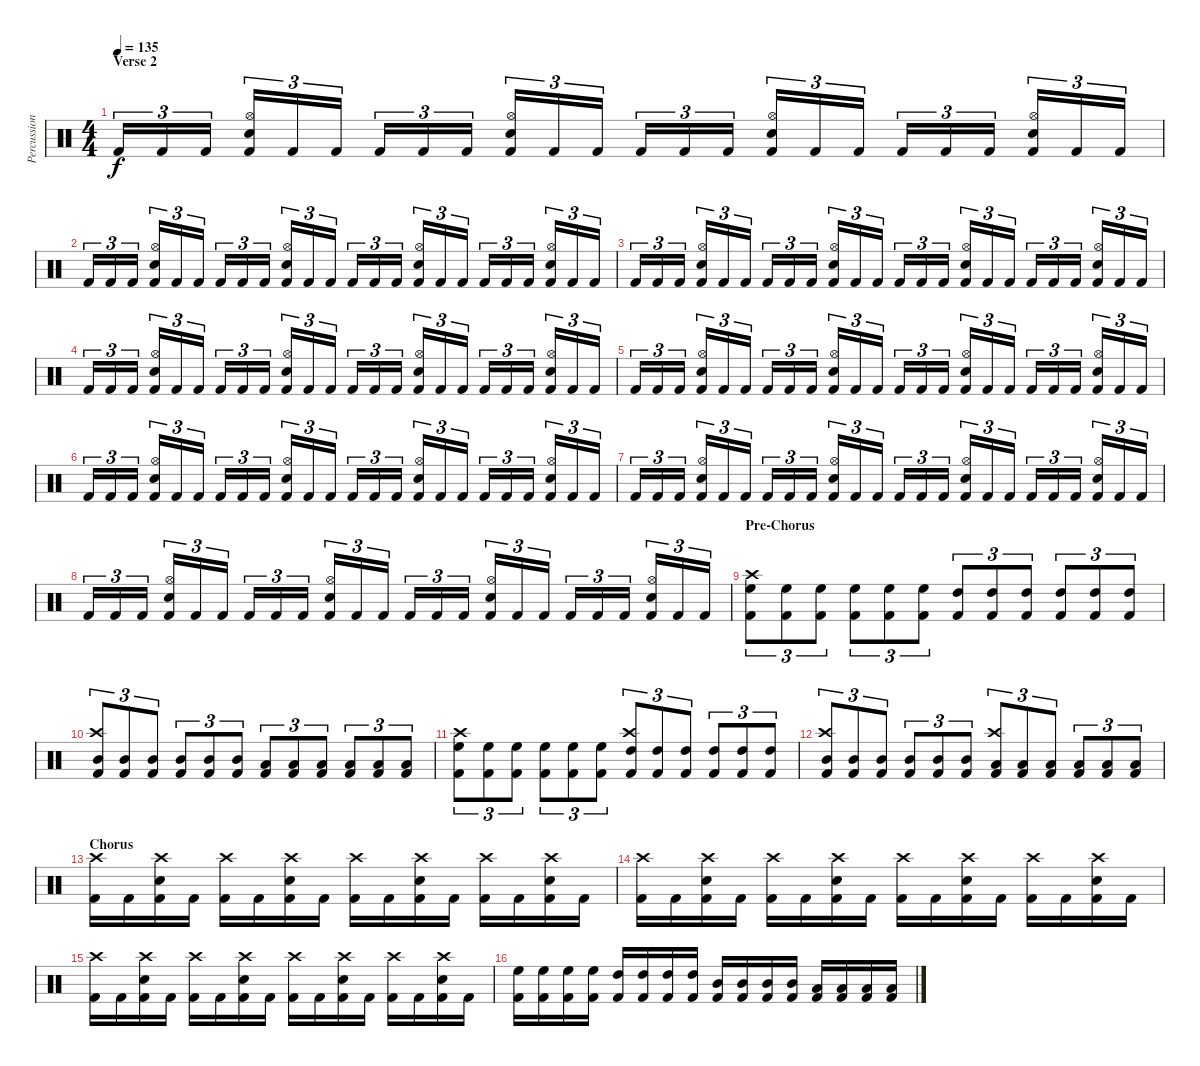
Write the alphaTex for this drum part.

\track ("Percussion" "Percussion") {instrument percussion}
\staff {score}
\articulation defaults
\ts (4 4)
\section ("" "Verse 2")
\tempo 135
\clef neutral
\ks c "Kick (hit) 2".16{tu (3 2) dy f} "Kick (hit) 2".16{tu (3 2)} "Kick (hit) 2".16{tu (3 2)}
("Hi-Hat (open)" "Snare (hit) 2" "Kick (hit) 2").16{tu (3 2)} "Kick (hit) 2".16{tu (3 2)} "Kick (hit) 2".16{tu (3 2)} "Kick (hit) 2".16{tu (3 2)} "Kick (hit) 2".16{tu (3 2)} "Kick (hit) 2".16{tu (3 2)} ("Hi-Hat (open)" "Snare (hit) 2" "Kick (hit) 2").16{tu (3 2)} "Kick (hit) 2".16{tu (3 2)} "Kick (hit) 2".16{tu (3 2)} "Kick (hit) 2".16{tu (3 2)} "Kick (hit) 2".16{tu (3 2)} "Kick (hit) 2".16{tu (3 2)} ("Hi-Hat (open)" "Snare (hit) 2" "Kick (hit) 2").16{tu (3 2)} "Kick (hit) 2".16{tu (3 2)} "Kick (hit) 2".16{tu (3 2)} "Kick (hit) 2".16{tu (3 2)} "Kick (hit) 2".16{tu (3 2)} "Kick (hit) 2".16{tu (3 2)} ("Hi-Hat (open)" "Snare (hit) 2" "Kick (hit) 2").16{tu (3 2)} "Kick (hit) 2".16{tu (3 2)} "Kick (hit) 2".16{tu (3 2)} |
"Kick (hit) 2".16{tu (3 2)} "Kick (hit) 2".16{tu (3 2)} "Kick (hit) 2".16{tu (3 2)} ("Hi-Hat (open)" "Snare (hit) 2" "Kick (hit) 2").16{tu (3 2)} "Kick (hit) 2".16{tu (3 2)} "Kick (hit) 2".16{tu (3 2)} "Kick (hit) 2".16{tu (3 2)} "Kick (hit) 2".16{tu (3 2)} "Kick (hit) 2".16{tu (3 2)} ("Hi-Hat (open)" "Snare (hit) 2" "Kick (hit) 2").16{tu (3 2)} "Kick (hit) 2".16{tu (3 2)} "Kick (hit) 2".16{tu (3 2)} "Kick (hit) 2".16{tu (3 2)} "Kick (hit) 2".16{tu (3 2)} "Kick (hit) 2".16{tu (3 2)} ("Hi-Hat (open)" "Snare (hit) 2" "Kick (hit) 2").16{tu (3 2)} "Kick (hit) 2".16{tu (3 2)} "Kick (hit) 2".16{tu (3 2)} "Kick (hit) 2".16{tu (3 2)} "Kick (hit) 2".16{tu (3 2)} "Kick (hit) 2".16{tu (3 2)} ("Hi-Hat (open)" "Snare (hit) 2" "Kick (hit) 2").16{tu (3 2)} "Kick (hit) 2".16{tu (3 2)} "Kick (hit) 2".16{tu (3 2)} |
"Kick (hit) 2".16{tu (3 2)} "Kick (hit) 2".16{tu (3 2)} "Kick (hit) 2".16{tu (3 2)} ("Hi-Hat (open)" "Snare (hit) 2" "Kick (hit) 2").16{tu (3 2)} "Kick (hit) 2".16{tu (3 2)} "Kick (hit) 2".16{tu (3 2)} "Kick (hit) 2".16{tu (3 2)} "Kick (hit) 2".16{tu (3 2)} "Kick (hit) 2".16{tu (3 2)} ("Hi-Hat (open)" "Snare (hit) 2" "Kick (hit) 2").16{tu (3 2)} "Kick (hit) 2".16{tu (3 2)} "Kick (hit) 2".16{tu (3 2)} "Kick (hit) 2".16{tu (3 2)} "Kick (hit) 2".16{tu (3 2)} "Kick (hit) 2".16{tu (3 2)} ("Hi-Hat (open)" "Snare (hit) 2" "Kick (hit) 2").16{tu (3 2)} "Kick (hit) 2".16{tu (3 2)} "Kick (hit) 2".16{tu (3 2)} "Kick (hit) 2".16{tu (3 2)} "Kick (hit) 2".16{tu (3 2)} "Kick (hit) 2".16{tu (3 2)} ("Hi-Hat (open)" "Snare (hit) 2" "Kick (hit) 2").16{tu (3 2)} "Kick (hit) 2".16{tu (3 2)} "Kick (hit) 2".16{tu (3 2)} |
"Kick (hit) 2".16{tu (3 2)} "Kick (hit) 2".16{tu (3 2)} "Kick (hit) 2".16{tu (3 2)} ("Hi-Hat (open)" "Snare (hit) 2" "Kick (hit) 2").16{tu (3 2)} "Kick (hit) 2".16{tu (3 2)} "Kick (hit) 2".16{tu (3 2)} "Kick (hit) 2".16{tu (3 2)} "Kick (hit) 2".16{tu (3 2)} "Kick (hit) 2".16{tu (3 2)} ("Hi-Hat (open)" "Snare (hit) 2" "Kick (hit) 2").16{tu (3 2)} "Kick (hit) 2".16{tu (3 2)} "Kick (hit) 2".16{tu (3 2)} "Kick (hit) 2".16{tu (3 2)} "Kick (hit) 2".16{tu (3 2)} "Kick (hit) 2".16{tu (3 2)} ("Hi-Hat (open)" "Snare (hit) 2" "Kick (hit) 2").16{tu (3 2)} "Kick (hit) 2".16{tu (3 2)} "Kick (hit) 2".16{tu (3 2)} "Kick (hit) 2".16{tu (3 2)} "Kick (hit) 2".16{tu (3 2)} "Kick (hit) 2".16{tu (3 2)} ("Hi-Hat (open)" "Snare (hit) 2" "Kick (hit) 2").16{tu (3 2)} "Kick (hit) 2".16{tu (3 2)} "Kick (hit) 2".16{tu (3 2)} |
"Kick (hit) 2".16{tu (3 2)} "Kick (hit) 2".16{tu (3 2)} "Kick (hit) 2".16{tu (3 2)} ("Hi-Hat (open)" "Snare (hit) 2" "Kick (hit) 2").16{tu (3 2)} "Kick (hit) 2".16{tu (3 2)} "Kick (hit) 2".16{tu (3 2)} "Kick (hit) 2".16{tu (3 2)} "Kick (hit) 2".16{tu (3 2)} "Kick (hit) 2".16{tu (3 2)} ("Hi-Hat (open)" "Snare (hit) 2" "Kick (hit) 2").16{tu (3 2)} "Kick (hit) 2".16{tu (3 2)} "Kick (hit) 2".16{tu (3 2)} "Kick (hit) 2".16{tu (3 2)} "Kick (hit) 2".16{tu (3 2)} "Kick (hit) 2".16{tu (3 2)} ("Hi-Hat (open)" "Snare (hit) 2" "Kick (hit) 2").16{tu (3 2)} "Kick (hit) 2".16{tu (3 2)} "Kick (hit) 2".16{tu (3 2)} "Kick (hit) 2".16{tu (3 2)} "Kick (hit) 2".16{tu (3 2)} "Kick (hit) 2".16{tu (3 2)} ("Hi-Hat (open)" "Snare (hit) 2" "Kick (hit) 2").16{tu (3 2)} "Kick (hit) 2".16{tu (3 2)} "Kick (hit) 2".16{tu (3 2)} |
"Kick (hit) 2".16{tu (3 2)} "Kick (hit) 2".16{tu (3 2)} "Kick (hit) 2".16{tu (3 2)} ("Hi-Hat (open)" "Snare (hit) 2" "Kick (hit) 2").16{tu (3 2)} "Kick (hit) 2".16{tu (3 2)} "Kick (hit) 2".16{tu (3 2)} "Kick (hit) 2".16{tu (3 2)} "Kick (hit) 2".16{tu (3 2)} "Kick (hit) 2".16{tu (3 2)} ("Hi-Hat (open)" "Snare (hit) 2" "Kick (hit) 2").16{tu (3 2)} "Kick (hit) 2".16{tu (3 2)} "Kick (hit) 2".16{tu (3 2)} "Kick (hit) 2".16{tu (3 2)} "Kick (hit) 2".16{tu (3 2)} "Kick (hit) 2".16{tu (3 2)} ("Hi-Hat (open)" "Snare (hit) 2" "Kick (hit) 2").16{tu (3 2)} "Kick (hit) 2".16{tu (3 2)} "Kick (hit) 2".16{tu (3 2)} "Kick (hit) 2".16{tu (3 2)} "Kick (hit) 2".16{tu (3 2)} "Kick (hit) 2".16{tu (3 2)} ("Hi-Hat (open)" "Snare (hit) 2" "Kick (hit) 2").16{tu (3 2)} "Kick (hit) 2".16{tu (3 2)} "Kick (hit) 2".16{tu (3 2)} |
"Kick (hit) 2".16{tu (3 2)} "Kick (hit) 2".16{tu (3 2)} "Kick (hit) 2".16{tu (3 2)} ("Hi-Hat (open)" "Snare (hit) 2" "Kick (hit) 2").16{tu (3 2)} "Kick (hit) 2".16{tu (3 2)} "Kick (hit) 2".16{tu (3 2)} "Kick (hit) 2".16{tu (3 2)} "Kick (hit) 2".16{tu (3 2)} "Kick (hit) 2".16{tu (3 2)} ("Hi-Hat (open)" "Snare (hit) 2" "Kick (hit) 2").16{tu (3 2)} "Kick (hit) 2".16{tu (3 2)} "Kick (hit) 2".16{tu (3 2)} "Kick (hit) 2".16{tu (3 2)} "Kick (hit) 2".16{tu (3 2)} "Kick (hit) 2".16{tu (3 2)} ("Hi-Hat (open)" "Snare (hit) 2" "Kick (hit) 2").16{tu (3 2)} "Kick (hit) 2".16{tu (3 2)} "Kick (hit) 2".16{tu (3 2)} "Kick (hit) 2".16{tu (3 2)} "Kick (hit) 2".16{tu (3 2)} "Kick (hit) 2".16{tu (3 2)} ("Hi-Hat (open)" "Snare (hit) 2" "Kick (hit) 2").16{tu (3 2)} "Kick (hit) 2".16{tu (3 2)} "Kick (hit) 2".16{tu (3 2)} |
"Kick (hit) 2".16{tu (3 2)} "Kick (hit) 2".16{tu (3 2)} "Kick (hit) 2".16{tu (3 2)} ("Hi-Hat (open)" "Snare (hit) 2" "Kick (hit) 2").16{tu (3 2)} "Kick (hit) 2".16{tu (3 2)} "Kick (hit) 2".16{tu (3 2)} "Kick (hit) 2".16{tu (3 2)} "Kick (hit) 2".16{tu (3 2)} "Kick (hit) 2".16{tu (3 2)} ("Hi-Hat (open)" "Snare (hit) 2" "Kick (hit) 2").16{tu (3 2)} "Kick (hit) 2".16{tu (3 2)} "Kick (hit) 2".16{tu (3 2)} "Kick (hit) 2".16{tu (3 2)} "Kick (hit) 2".16{tu (3 2)} "Kick (hit) 2".16{tu (3 2)} ("Hi-Hat (open)" "Snare (hit) 2" "Kick (hit) 2").16{tu (3 2)} "Kick (hit) 2".16{tu (3 2)} "Kick (hit) 2".16{tu (3 2)} "Kick (hit) 2".16{tu (3 2)} "Kick (hit) 2".16{tu (3 2)} "Kick (hit) 2".16{tu (3 2)} ("Hi-Hat (open)" "Snare (hit) 2" "Kick (hit) 2").16{tu (3 2)} "Kick (hit) 2".16{tu (3 2)} "Kick (hit) 2".16{tu (3 2)} |
\section ("" "Pre-Chorus")
("High Floor Tom (hit)" "Crash high (hit)" "Kick (hit) 2").8{tu (3 2)} ("High Floor Tom (hit)" "Kick (hit) 2").8{tu (3 2)} ("High Floor Tom (hit)" "Kick (hit) 2").8{tu (3 2)} ("High Floor Tom (hit)" "Kick (hit) 2").8{tu (3 2)} ("High Floor Tom (hit)" "Kick (hit) 2").8{tu (3 2)} ("High Floor Tom (hit)" "Kick (hit) 2").8{tu (3 2)} ("High Tom (hit)" "Kick (hit) 2").8{tu (3 2)} ("High Tom (hit)" "Kick (hit) 2").8{tu (3 2)} ("High Tom (hit)" "Kick (hit) 2").8{tu (3 2)} ("High Tom (hit)" "Kick (hit) 2").8{tu (3 2)} ("High Tom (hit)" "Kick (hit) 2").8{tu (3 2)} ("High Tom (hit)" "Kick (hit) 2").8{tu (3 2)} |
("Mid Tom (hit)" "Crash high (hit)" "Kick (hit) 2").8{tu (3 2)} ("Mid Tom (hit)" "Kick (hit) 2").8{tu (3 2)} ("Mid Tom (hit)" "Kick (hit) 2").8{tu (3 2)} ("Mid Tom (hit)" "Kick (hit) 2").8{tu (3 2)} ("Mid Tom (hit)" "Kick (hit) 2").8{tu (3 2)} ("Mid Tom (hit)" "Kick (hit) 2").8{tu (3 2)} ("Low Tom (hit)" "Kick (hit) 2").8{tu (3 2)} ("Low Tom (hit)" "Kick (hit) 2").8{tu (3 2)} ("Low Tom (hit)" "Kick (hit) 2").8{tu (3 2)} ("Low Tom (hit)" "Kick (hit) 2").8{tu (3 2)} ("Low Tom (hit)" "Kick (hit) 2").8{tu (3 2)} ("Low Tom (hit)" "Kick (hit) 2").8{tu (3 2)} |
("High Floor Tom (hit)" "Crash high (hit)" "Kick (hit) 2").8{tu (3 2)} ("High Floor Tom (hit)" "Kick (hit) 2").8{tu (3 2)} ("High Floor Tom (hit)" "Kick (hit) 2").8{tu (3 2)} ("High Floor Tom (hit)" "Kick (hit) 2").8{tu (3 2)} ("High Floor Tom (hit)" "Kick (hit) 2").8{tu (3 2)} ("High Floor Tom (hit)" "Kick (hit) 2").8{tu (3 2)} ("High Tom (hit)" "Crash high (hit)" "Kick (hit) 2").8{tu (3 2)} ("High Tom (hit)" "Kick (hit) 2").8{tu (3 2)} ("High Tom (hit)" "Kick (hit) 2").8{tu (3 2)} ("High Tom (hit)" "Kick (hit) 2").8{tu (3 2)} ("High Tom (hit)" "Kick (hit) 2").8{tu (3 2)} ("High Tom (hit)" "Kick (hit) 2").8{tu (3 2)} |
("Mid Tom (hit)" "Crash high (hit)" "Kick (hit) 2").8{tu (3 2)} ("Mid Tom (hit)" "Kick (hit) 2").8{tu (3 2)} ("Mid Tom (hit)" "Kick (hit) 2").8{tu (3 2)} ("Mid Tom (hit)" "Kick (hit) 2").8{tu (3 2)} ("Mid Tom (hit)" "Kick (hit) 2").8{tu (3 2)} ("Mid Tom (hit)" "Kick (hit) 2").8{tu (3 2)} ("Low Tom (hit)" "Crash high (hit)" "Kick (hit) 2").8{tu (3 2)} ("Low Tom (hit)" "Kick (hit) 2").8{tu (3 2)} ("Low Tom (hit)" "Kick (hit) 2").8{tu (3 2)} ("Low Tom (hit)" "Kick (hit) 2").8{tu (3 2)} ("Low Tom (hit)" "Kick (hit) 2").8{tu (3 2)} ("Low Tom (hit)" "Kick (hit) 2").8{tu (3 2)} |
\section ("" "Chorus")
("Crash high (hit)" "Kick (hit) 2").16 "Kick (hit) 2".16 ("Crash high (hit)" "Snare (hit) 2" "Kick (hit) 2").16 "Kick (hit) 2".16 ("Crash high (hit)" "Kick (hit) 2").16 "Kick (hit) 2".16 ("Crash high (hit)" "Snare (hit) 2" "Kick (hit) 2").16 "Kick (hit) 2".16 ("Crash high (hit)" "Kick (hit) 2").16 "Kick (hit) 2".16 ("Crash high (hit)" "Snare (hit) 2" "Kick (hit) 2").16 "Kick (hit) 2".16 ("Crash high (hit)" "Kick (hit) 2").16 "Kick (hit) 2".16 ("Crash high (hit)" "Snare (hit) 2" "Kick (hit) 2").16 "Kick (hit) 2".16 |
("Crash high (hit)" "Kick (hit) 2").16 "Kick (hit) 2".16 ("Crash high (hit)" "Snare (hit) 2" "Kick (hit) 2").16 "Kick (hit) 2".16 ("Crash high (hit)" "Kick (hit) 2").16 "Kick (hit) 2".16 ("Crash high (hit)" "Snare (hit) 2" "Kick (hit) 2").16 "Kick (hit) 2".16 ("Crash high (hit)" "Kick (hit) 2").16 "Kick (hit) 2".16 ("Crash high (hit)" "Snare (hit) 2" "Kick (hit) 2").16 "Kick (hit) 2".16 ("Crash high (hit)" "Kick (hit) 2").16 "Kick (hit) 2".16 ("Crash high (hit)" "Snare (hit) 2" "Kick (hit) 2").16 "Kick (hit) 2".16 |
("Crash high (hit)" "Kick (hit) 2").16 "Kick (hit) 2".16 ("Crash high (hit)" "Snare (hit) 2" "Kick (hit) 2").16 "Kick (hit) 2".16 ("Crash high (hit)" "Kick (hit) 2").16 "Kick (hit) 2".16 ("Crash high (hit)" "Snare (hit) 2" "Kick (hit) 2").16 "Kick (hit) 2".16 ("Crash high (hit)" "Kick (hit) 2").16 "Kick (hit) 2".16 ("Crash high (hit)" "Snare (hit) 2" "Kick (hit) 2").16 "Kick (hit) 2".16 ("Crash high (hit)" "Kick (hit) 2").16 "Kick (hit) 2".16 ("Crash high (hit)" "Snare (hit) 2" "Kick (hit) 2").16 "Kick (hit) 2".16 |
("High Floor Tom (hit)" "Kick (hit) 2").16 ("High Floor Tom (hit)" "Kick (hit) 2").16 ("High Floor Tom (hit)" "Kick (hit) 2").16 ("High Floor Tom (hit)" "Kick (hit) 2").16 ("High Tom (hit)" "Kick (hit) 2").16 ("High Tom (hit)" "Kick (hit) 2").16 ("High Tom (hit)" "Kick (hit) 2").16 ("High Tom (hit)" "Kick (hit) 2").16 ("Mid Tom (hit)" "Kick (hit) 2").16 ("Mid Tom (hit)" "Kick (hit) 2").16 ("Mid Tom (hit)" "Kick (hit) 2").16 ("Mid Tom (hit)" "Kick (hit) 2").16 ("Low Tom (hit)" "Kick (hit) 2").16 ("Low Tom (hit)" "Kick (hit) 2").16 ("Low Tom (hit)" "Kick (hit) 2").16 ("Low Tom (hit)" "Kick (hit) 2").16
